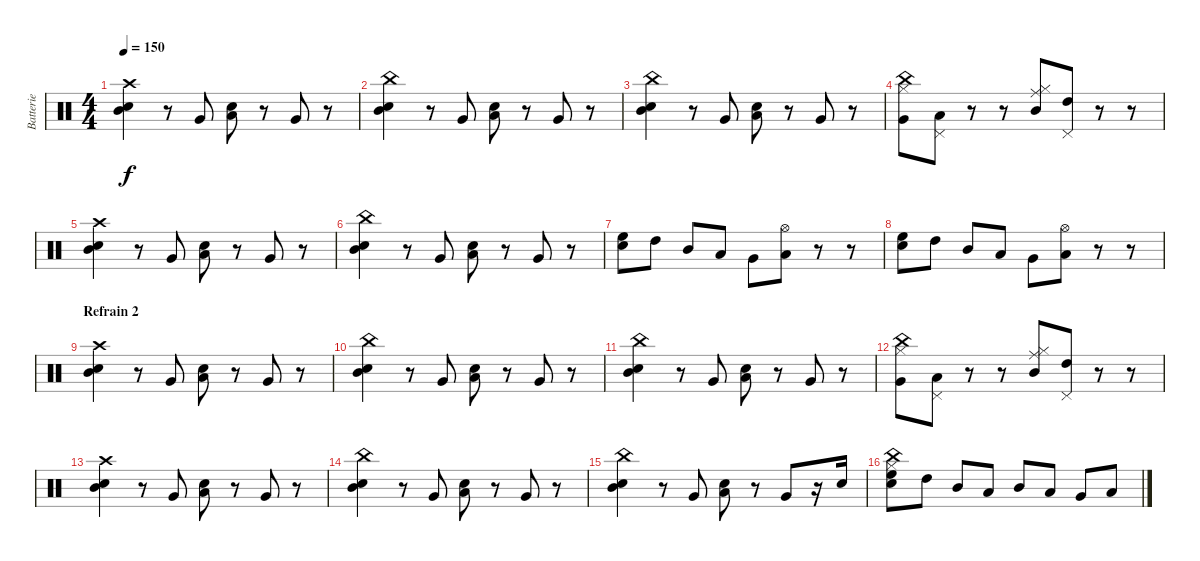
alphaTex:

\track ("Batterie" "Batterie") {instrument percussion}
\staff {score}
\articulation defaults
\ts (4 4)
\tempo 150
\clef neutral
\ks c
("Mid Tom (hit)" "Electric Snare (hit)" "Crash high (hit)").4{dy f} r.8 "Very Low Tom (hit)".8 ("Low Tom (hit)" "Electric Snare (hit)").8 r.8 "Very Low Tom (hit)".8 r.8 |
("Mid Tom (hit)" "Electric Snare (hit)" "China (hit)").4 r.8 "Very Low Tom (hit)".8 ("Low Tom (hit)" "Electric Snare (hit)").8 r.8 "Very Low Tom (hit)".8 r.8 |
("Mid Tom (hit)" "Electric Snare (hit)" "China (hit)").4 r.8 "Very Low Tom (hit)".8 ("Low Tom (hit)" "Electric Snare (hit)").8 r.8 "Very Low Tom (hit)".8 r.8 |
("Hi-Hat (closed)" "Very Low Tom (hit)" "China (hit)").8 ("Pedal Hi-Hat (hit)" "Low Tom (hit)").8 r.8 r.8 ("Hi-Hat (closed)" "Mid Tom (hit)" "Ride (middle)").8 ("Pedal Hi-Hat (hit)" "High Tom (hit)").8 r.8 r.8 |
("Mid Tom (hit)" "Electric Snare (hit)" "Crash high (hit)").4 r.8 "Very Low Tom (hit)".8 ("Low Tom (hit)" "Electric Snare (hit)").8 r.8 "Very Low Tom (hit)".8 r.8 |
("Mid Tom (hit)" "Electric Snare (hit)" "China (hit)").4 r.8 "Very Low Tom (hit)".8 ("Low Tom (hit)" "Electric Snare (hit)").8 r.8 "Very Low Tom (hit)".8 r.8 |
("High Floor Tom (hit)" "Electric Snare (hit)").8 "High Tom (hit)".8 "Mid Tom (hit)".8 "Low Tom (hit)".8 "Very Low Tom (hit)".8 ("Low Floor Tom (hit)" "Hi-Hat (open)").8 r.8 r.8 |
("High Floor Tom (hit)" "Electric Snare (hit)").8 "High Tom (hit)".8 "Mid Tom (hit)".8 "Low Tom (hit)".8 "Very Low Tom (hit)".8 ("Low Floor Tom (hit)" "Hi-Hat (open)").8 r.8 r.8 |
\section ("" "Refrain 2")
("Mid Tom (hit)" "Electric Snare (hit)" "Crash high (hit)").4 r.8 "Very Low Tom (hit)".8 ("Low Tom (hit)" "Electric Snare (hit)").8 r.8 "Very Low Tom (hit)".8 r.8 |
("Mid Tom (hit)" "Electric Snare (hit)" "China (hit)").4 r.8 "Very Low Tom (hit)".8 ("Low Tom (hit)" "Electric Snare (hit)").8 r.8 "Very Low Tom (hit)".8 r.8 |
("Mid Tom (hit)" "Electric Snare (hit)" "China (hit)").4 r.8 "Very Low Tom (hit)".8 ("Low Tom (hit)" "Electric Snare (hit)").8 r.8 "Very Low Tom (hit)".8 r.8 |
("Hi-Hat (closed)" "Very Low Tom (hit)" "China (hit)").8 ("Pedal Hi-Hat (hit)" "Low Tom (hit)").8 r.8 r.8 ("Hi-Hat (closed)" "Mid Tom (hit)" "Ride (middle)").8 ("Pedal Hi-Hat (hit)" "High Tom (hit)").8 r.8 r.8 |
("Mid Tom (hit)" "Electric Snare (hit)" "Crash high (hit)").4 r.8 "Very Low Tom (hit)".8 ("Low Tom (hit)" "Electric Snare (hit)").8 r.8 "Very Low Tom (hit)".8 r.8 |
("Mid Tom (hit)" "Electric Snare (hit)" "China (hit)").4 r.8 "Very Low Tom (hit)".8 ("Low Tom (hit)" "Electric Snare (hit)").8 r.8 "Very Low Tom (hit)".8 r.8 |
("Mid Tom (hit)" "Electric Snare (hit)" "China (hit)").4 r.8 "Very Low Tom (hit)".8 ("Low Tom (hit)" "Electric Snare (hit)").8 r.8 "Very Low Tom (hit)".8 r.16 "Electric Snare (hit)".16 |
("Hi-Hat (closed)" "High Floor Tom (hit)" "China (hit)" "Snare (hit) 2").8 "High Tom (hit)".8 "Mid Tom (hit)".8 "Low Floor Tom (hit)".8 "Mid Tom (hit)".8 "Low Tom (hit)".8 "Very Low Tom (hit)".8 "Low Floor Tom (hit)".8
